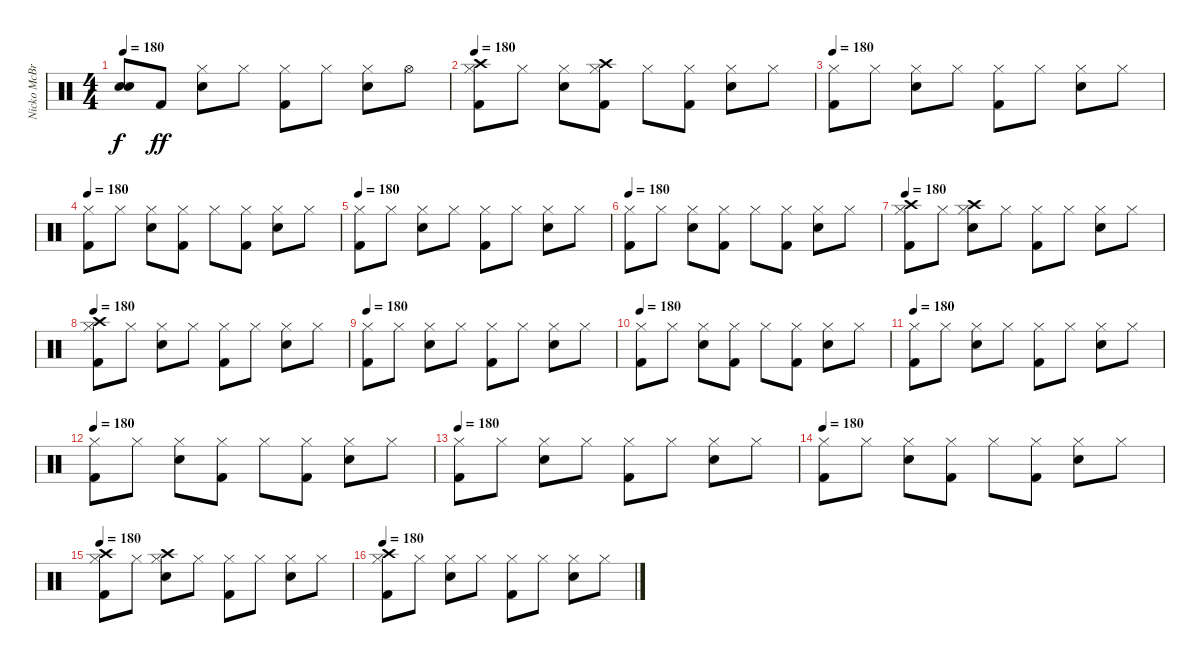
\track ("Nicko McBrain" "Nicko McBr") {instrument percussion}
\staff {score}
\articulation defaults
\ts (4 4)
\tempo 180
\clef neutral
\ks c
("Snare (hit)"{t} "Snare (hit)"{t}).8{dy f} "Kick (hit) 2".8{dy ff} ("Snare (hit) 2" "Hi-Hat (closed)").8 "Hi-Hat (closed)".8 ("Kick (hit) 2" "Hi-Hat (closed)").8 "Hi-Hat (closed)".8 ("Snare (hit) 2" "Hi-Hat (closed)").8 "Hi-Hat (open)".8 |
\tempo 180
("Kick (hit) 2" "Hi-Hat (closed)" "Crash high (hit)").8 "Hi-Hat (closed)".8 ("Snare (hit) 2" "Hi-Hat (closed)").8 ("Kick (hit) 2" "Hi-Hat (closed)" "Crash high (hit)").8 "Hi-Hat (closed)".8 ("Kick (hit) 2" "Hi-Hat (closed)").8 ("Snare (hit) 2" "Hi-Hat (closed)").8 "Hi-Hat (closed)".8 |
\tempo 180
("Kick (hit) 2" "Hi-Hat (closed)").8 "Hi-Hat (closed)".8 ("Snare (hit) 2" "Hi-Hat (closed)").8 "Hi-Hat (closed)".8 ("Kick (hit) 2" "Hi-Hat (closed)").8 "Hi-Hat (closed)".8 ("Snare (hit) 2" "Hi-Hat (closed)").8 "Hi-Hat (closed)".8 |
\tempo 180
("Kick (hit) 2" "Hi-Hat (closed)").8 "Hi-Hat (closed)".8 ("Snare (hit) 2" "Hi-Hat (closed)").8 ("Kick (hit) 2" "Hi-Hat (closed)").8 "Hi-Hat (closed)".8 ("Kick (hit) 2" "Hi-Hat (closed)").8 ("Snare (hit) 2" "Hi-Hat (closed)").8 "Hi-Hat (closed)".8 |
\tempo 180
("Kick (hit) 2" "Hi-Hat (closed)").8 "Hi-Hat (closed)".8 ("Snare (hit) 2" "Hi-Hat (closed)").8 "Hi-Hat (closed)".8 ("Kick (hit) 2" "Hi-Hat (closed)").8 "Hi-Hat (closed)".8 ("Snare (hit) 2" "Hi-Hat (closed)").8 "Hi-Hat (closed)".8 |
\tempo 180
("Kick (hit) 2" "Hi-Hat (closed)").8 "Hi-Hat (closed)".8 ("Snare (hit) 2" "Hi-Hat (closed)").8 ("Kick (hit) 2" "Hi-Hat (closed)").8 "Hi-Hat (closed)".8 ("Kick (hit) 2" "Hi-Hat (closed)").8 ("Snare (hit) 2" "Hi-Hat (closed)").8 "Hi-Hat (closed)".8 |
\tempo 180
("Kick (hit) 2" "Hi-Hat (closed)" "Crash high (hit)").8 "Hi-Hat (closed)".8 ("Snare (hit) 2" "Hi-Hat (closed)" "Crash high (hit)").8 "Hi-Hat (closed)".8 ("Kick (hit) 2" "Hi-Hat (closed)").8 "Hi-Hat (closed)".8 ("Snare (hit) 2" "Hi-Hat (closed)").8 "Hi-Hat (closed)".8 |
\tempo 180
("Kick (hit) 2" "Hi-Hat (closed)" "Crash high (hit)").8 "Hi-Hat (closed)".8 ("Snare (hit) 2" "Hi-Hat (closed)").8 "Hi-Hat (closed)".8 ("Kick (hit) 2" "Hi-Hat (closed)").8 "Hi-Hat (closed)".8 ("Snare (hit) 2" "Hi-Hat (closed)").8 "Hi-Hat (closed)".8 |
\tempo 180
("Kick (hit) 2" "Hi-Hat (closed)").8 "Hi-Hat (closed)".8 ("Snare (hit) 2" "Hi-Hat (closed)").8 "Hi-Hat (closed)".8 ("Kick (hit) 2" "Hi-Hat (closed)").8 "Hi-Hat (closed)".8 ("Snare (hit) 2" "Hi-Hat (closed)").8 "Hi-Hat (closed)".8 |
\tempo 180
("Kick (hit) 2" "Hi-Hat (closed)").8 "Hi-Hat (closed)".8 ("Snare (hit) 2" "Hi-Hat (closed)").8 ("Kick (hit) 2" "Hi-Hat (closed)").8 "Hi-Hat (closed)".8 ("Kick (hit) 2" "Hi-Hat (closed)").8 ("Snare (hit) 2" "Hi-Hat (closed)").8 "Hi-Hat (closed)".8 |
\tempo 180
("Kick (hit) 2" "Hi-Hat (closed)").8 "Hi-Hat (closed)".8 ("Snare (hit) 2" "Hi-Hat (closed)").8 "Hi-Hat (closed)".8 ("Kick (hit) 2" "Hi-Hat (closed)").8 "Hi-Hat (closed)".8 ("Snare (hit) 2" "Hi-Hat (closed)").8 "Hi-Hat (closed)".8 |
\tempo 180
("Kick (hit) 2" "Hi-Hat (closed)").8 "Hi-Hat (closed)".8 ("Snare (hit) 2" "Hi-Hat (closed)").8 ("Kick (hit) 2" "Hi-Hat (closed)").8 "Hi-Hat (closed)".8 ("Kick (hit) 2" "Hi-Hat (closed)").8 ("Snare (hit) 2" "Hi-Hat (closed)").8 "Hi-Hat (closed)".8 |
\tempo 180
("Kick (hit) 2" "Hi-Hat (closed)").8 "Hi-Hat (closed)".8 ("Snare (hit) 2" "Hi-Hat (closed)").8 "Hi-Hat (closed)".8 ("Kick (hit) 2" "Hi-Hat (closed)").8 "Hi-Hat (closed)".8 ("Snare (hit) 2" "Hi-Hat (closed)").8 "Hi-Hat (closed)".8 |
\tempo 180
("Kick (hit) 2" "Hi-Hat (closed)").8 "Hi-Hat (closed)".8 ("Snare (hit) 2" "Hi-Hat (closed)").8 ("Kick (hit) 2" "Hi-Hat (closed)").8 "Hi-Hat (closed)".8 ("Kick (hit) 2" "Hi-Hat (closed)").8 ("Snare (hit) 2" "Hi-Hat (closed)").8 "Hi-Hat (closed)".8 |
\tempo 180
("Kick (hit) 2" "Hi-Hat (closed)" "Crash high (hit)").8 "Hi-Hat (closed)".8 ("Snare (hit) 2" "Hi-Hat (closed)" "Crash high (hit)").8 "Hi-Hat (closed)".8 ("Kick (hit) 2" "Hi-Hat (closed)").8 "Hi-Hat (closed)".8 ("Snare (hit) 2" "Hi-Hat (closed)").8 "Hi-Hat (closed)".8 |
\tempo 180
("Kick (hit) 2" "Hi-Hat (closed)" "Crash high (hit)").8 "Hi-Hat (closed)".8 ("Snare (hit) 2" "Hi-Hat (closed)").8 "Hi-Hat (closed)".8 ("Kick (hit) 2" "Hi-Hat (closed)").8 "Hi-Hat (closed)".8 ("Snare (hit) 2" "Hi-Hat (closed)").8 "Hi-Hat (closed)".8
